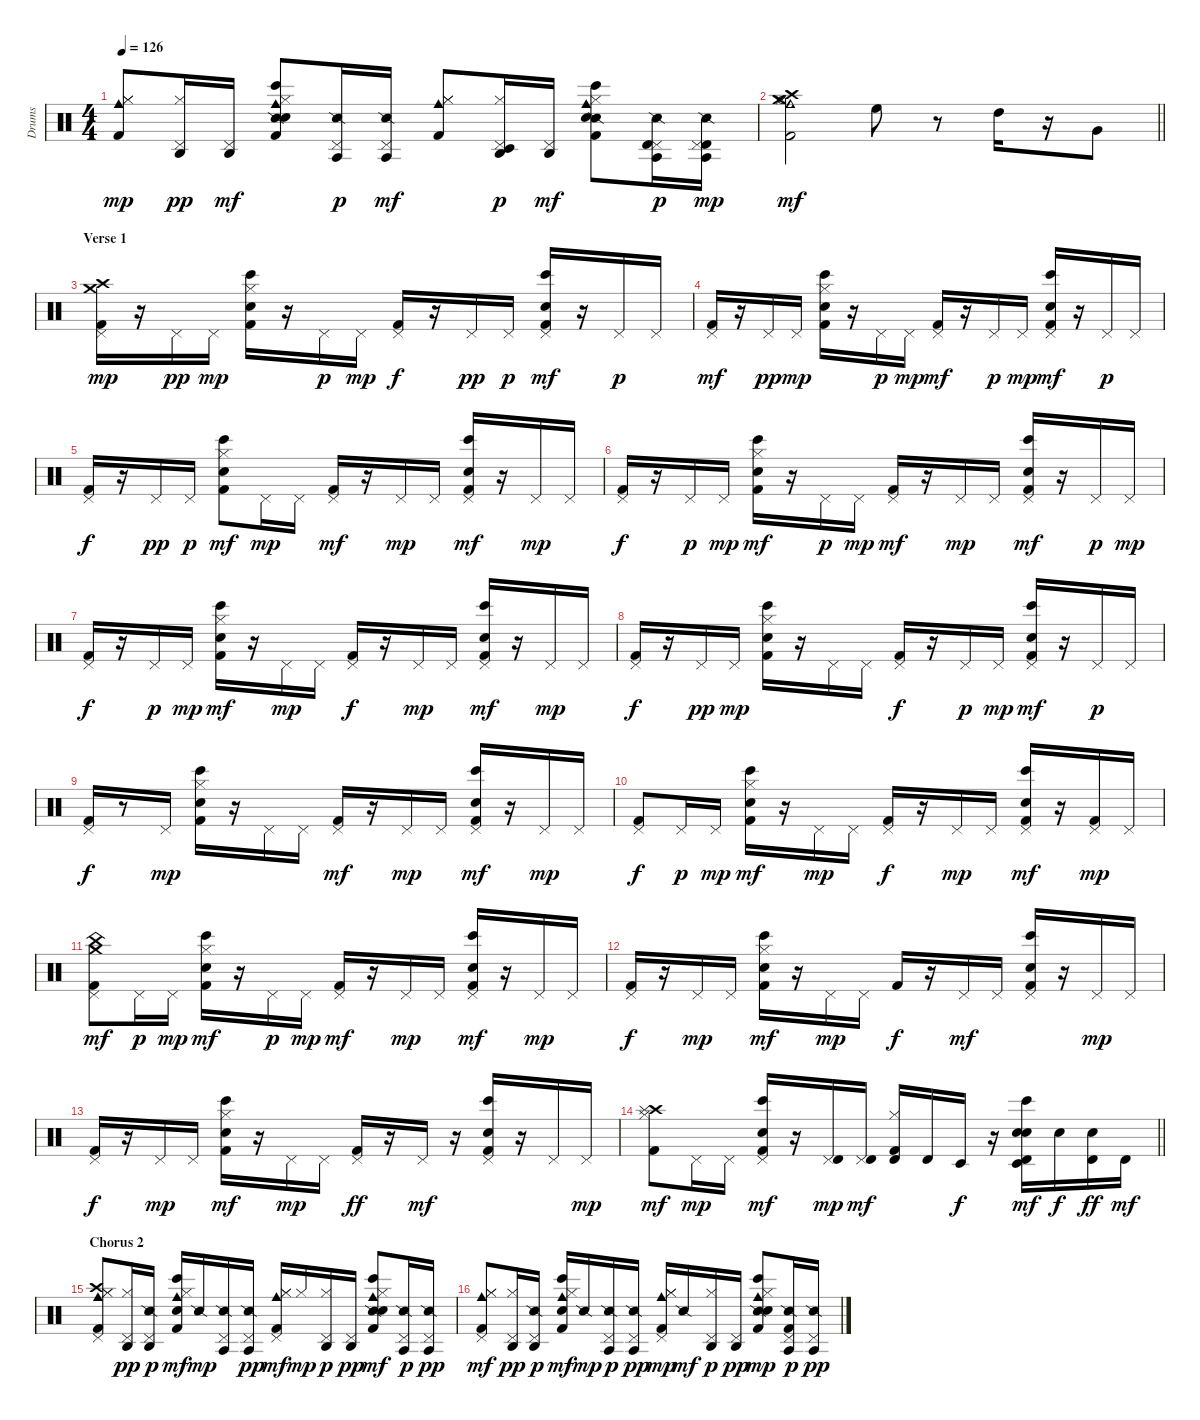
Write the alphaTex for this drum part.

\track ("Drums" "Drums") {instrument percussion}
\staff {score}
\articulation defaults
\ts (4 4)
\tempo 126
\clef neutral
\ks c
("Hi-Hat (closed)" "Kick (hit) 2" "Hi-Hat (closed)" "Cowbell medium (hit)").8{dy mp} ("Hi-Hat (closed)" "Pedal Hi-Hat (hit)" "Agogo high (hit)").16{dy pp} ("Agogo high (hit)" "Pedal Hi-Hat (hit)").16{dy mf} ("Bongo High (hit)" "Snare (side stick) 2" "Kick (hit) 2" "Hand Clap (hit)" "Hi-Hat (closed)" "Cowbell medium (hit)").8 ("Snare (side stick) 2" "Pedal Hi-Hat (hit)" "Agogo tow (hit)").16{dy p} ("Snare (side stick) 2" "Agogo tow (hit)" "Pedal Hi-Hat (hit)").16{dy mf} ("Hi-Hat (closed)" "Kick (hit) 2" "Hi-Hat (closed)" "Cowbell medium (hit)").8 ("Hi-Hat (closed)" "Pedal Hi-Hat (hit)" "Timbale low (hit)" "Agogo high (hit)").16{dy p} ("Agogo high (hit)" "Pedal Hi-Hat (hit)").16{dy mf} ("Bongo High (hit)" "Snare (side stick) 2" "Kick (hit) 2" "Hand Clap (hit)" "Hi-Hat (closed)" "Cowbell medium (hit)").8 ("Snare (side stick) 2" "Pedal Hi-Hat (hit)" "Timbale high (hit)" "Agogo tow (hit)").16{dy p} ("Snare (side stick) 2" "Timbale high (hit)" "Agogo tow (hit)" "Pedal Hi-Hat (hit)").16{dy mp} |
\barLineRight lightlight
("Hi-Hat (closed)" "Kick (hit) 2" "Hi-Hat (open)" "Crash high (hit)" "Cowbell medium (hit)" "Crash medium (hit)").2{dy mf} "High Floor Tom (hit)".8 r.8 "High Tom (hit)".16 r.16 "Very Low Tom (hit)".8 |
\section ("" "Verse 1")
("Kick (hit) 2" "Pedal Hi-Hat (hit)" "Crash high (hit)" "Crash medium (hit)").16{dy mp} r.16 "Pedal Hi-Hat (hit)".16{dy pp} "Pedal Hi-Hat (hit)".16{dy mp} ("Bongo High (hit)" "Kick (hit) 2" "Hand Clap (hit)" "Hi-Hat (closed)").16 r.16 "Pedal Hi-Hat (hit)".16{dy p} "Pedal Hi-Hat (hit)".16{dy mp} ("Kick (hit) 2" "Pedal Hi-Hat (hit)").16{dy f} r.16 "Pedal Hi-Hat (hit)".16{dy pp} "Pedal Hi-Hat (hit)".16{dy p} ("Bongo High (hit)" "Kick (hit) 2" "Hand Clap (hit)" "Pedal Hi-Hat (hit)").16{dy mf} r.16 "Pedal Hi-Hat (hit)".16{dy p} "Pedal Hi-Hat (hit)".16 |
("Kick (hit) 2" "Pedal Hi-Hat (hit)").16{dy mf} r.16 "Pedal Hi-Hat (hit)".16{dy pp} "Pedal Hi-Hat (hit)".16{dy mp} ("Bongo High (hit)" "Kick (hit) 2" "Hand Clap (hit)" "Hi-Hat (closed)").16 r.16 "Pedal Hi-Hat (hit)".16{dy p} "Pedal Hi-Hat (hit)".16{dy mp} ("Kick (hit) 2" "Pedal Hi-Hat (hit)").16{dy mf} r.16 "Pedal Hi-Hat (hit)".16{dy p} "Pedal Hi-Hat (hit)".16{dy mp} ("Bongo High (hit)" "Kick (hit) 2" "Hand Clap (hit)" "Pedal Hi-Hat (hit)").16{dy mf} r.16 "Pedal Hi-Hat (hit)".16{dy p} "Pedal Hi-Hat (hit)".16 |
("Kick (hit) 2" "Pedal Hi-Hat (hit)").16{dy f} r.16 "Pedal Hi-Hat (hit)".16{dy pp} "Pedal Hi-Hat (hit)".16{dy p} ("Bongo High (hit)" "Kick (hit) 2" "Hand Clap (hit)" "Hi-Hat (closed)").8{dy mf} "Pedal Hi-Hat (hit)".16{dy mp} "Pedal Hi-Hat (hit)".16 ("Kick (hit) 2" "Pedal Hi-Hat (hit)").16{dy mf} r.16 "Pedal Hi-Hat (hit)".16{dy mp} "Pedal Hi-Hat (hit)".16 ("Bongo High (hit)" "Kick (hit) 2" "Hand Clap (hit)" "Pedal Hi-Hat (hit)").16{dy mf} r.16 "Pedal Hi-Hat (hit)".16{dy mp} "Pedal Hi-Hat (hit)".16 |
("Kick (hit) 2" "Pedal Hi-Hat (hit)").16{dy f} r.16 "Pedal Hi-Hat (hit)".16{dy p} "Pedal Hi-Hat (hit)".16{dy mp} ("Bongo High (hit)" "Kick (hit) 2" "Hand Clap (hit)" "Hi-Hat (closed)").16{dy mf} r.16 "Pedal Hi-Hat (hit)".16{dy p} "Pedal Hi-Hat (hit)".16{dy mp} ("Kick (hit) 2" "Pedal Hi-Hat (hit)").16{dy mf} r.16 "Pedal Hi-Hat (hit)".16{dy mp} "Pedal Hi-Hat (hit)".16 ("Bongo High (hit)" "Kick (hit) 2" "Hand Clap (hit)" "Pedal Hi-Hat (hit)").16{dy mf} r.16 "Pedal Hi-Hat (hit)".16{dy p} "Pedal Hi-Hat (hit)".16{dy mp} |
("Kick (hit) 2" "Pedal Hi-Hat (hit)").16{dy f} r.16 "Pedal Hi-Hat (hit)".16{dy p} "Pedal Hi-Hat (hit)".16{dy mp} ("Bongo High (hit)" "Kick (hit) 2" "Hand Clap (hit)" "Hi-Hat (closed)").16{dy mf} r.16 "Pedal Hi-Hat (hit)".16{dy mp} "Pedal Hi-Hat (hit)".16 ("Kick (hit) 2" "Pedal Hi-Hat (hit)").16{dy f} r.16 "Pedal Hi-Hat (hit)".16{dy mp} "Pedal Hi-Hat (hit)".16 ("Bongo High (hit)" "Kick (hit) 2" "Hand Clap (hit)" "Pedal Hi-Hat (hit)").16{dy mf} r.16 "Pedal Hi-Hat (hit)".16{dy mp} "Pedal Hi-Hat (hit)".16 |
("Kick (hit) 2" "Pedal Hi-Hat (hit)").16{dy f} r.16 "Pedal Hi-Hat (hit)".16{dy pp} "Pedal Hi-Hat (hit)".16{dy mp} ("Bongo High (hit)" "Kick (hit) 2" "Hand Clap (hit)" "Hi-Hat (closed)").16 r.16 "Pedal Hi-Hat (hit)".16 "Pedal Hi-Hat (hit)".16 ("Kick (hit) 2" "Pedal Hi-Hat (hit)").16{dy f} r.16 "Pedal Hi-Hat (hit)".16{dy p} "Pedal Hi-Hat (hit)".16{dy mp} ("Bongo High (hit)" "Kick (hit) 2" "Hand Clap (hit)" "Pedal Hi-Hat (hit)").16{dy mf} r.16 "Pedal Hi-Hat (hit)".16{dy p} "Pedal Hi-Hat (hit)".16 |
("Kick (hit) 2" "Pedal Hi-Hat (hit)").16{dy f} r.8 "Pedal Hi-Hat (hit)".16{dy mp} ("Bongo High (hit)" "Kick (hit) 2" "Hand Clap (hit)" "Hi-Hat (closed)").16 r.16 "Pedal Hi-Hat (hit)".16 "Pedal Hi-Hat (hit)".16 ("Kick (hit) 2" "Pedal Hi-Hat (hit)").16{dy mf} r.16 "Pedal Hi-Hat (hit)".16{dy mp} "Pedal Hi-Hat (hit)".16 ("Bongo High (hit)" "Kick (hit) 2" "Hand Clap (hit)" "Pedal Hi-Hat (hit)").16{dy mf} r.16 "Pedal Hi-Hat (hit)".16{dy mp} "Pedal Hi-Hat (hit)".16 |
("Kick (hit) 2" "Pedal Hi-Hat (hit)").8{dy f} "Pedal Hi-Hat (hit)".16{dy p} "Pedal Hi-Hat (hit)".16{dy mp} ("Bongo High (hit)" "Kick (hit) 2" "Hand Clap (hit)" "Hi-Hat (closed)").16{dy mf} r.16 "Pedal Hi-Hat (hit)".16{dy mp} "Pedal Hi-Hat (hit)".16 ("Kick (hit) 2" "Pedal Hi-Hat (hit)").16{dy f} r.16 "Pedal Hi-Hat (hit)".16{dy mp} "Pedal Hi-Hat (hit)".16 ("Bongo High (hit)" "Kick (hit) 2" "Hand Clap (hit)" "Pedal Hi-Hat (hit)").16{dy mf} r.16 ("Kick (hit) 2" "Pedal Hi-Hat (hit)").16{dy mp} "Pedal Hi-Hat (hit)".16 |
("Kick (hit) 2" "Pedal Hi-Hat (hit)" "China (hit)" "Crash medium (hit)").8{dy mf} "Pedal Hi-Hat (hit)".16{dy p} "Pedal Hi-Hat (hit)".16{dy mp} ("Bongo High (hit)" "Kick (hit) 2" "Hand Clap (hit)" "Hi-Hat (closed)").16{dy mf} r.16 "Pedal Hi-Hat (hit)".16{dy p} "Pedal Hi-Hat (hit)".16{dy mp} ("Kick (hit) 2" "Pedal Hi-Hat (hit)").16{dy mf} r.16 "Pedal Hi-Hat (hit)".16{dy mp} "Pedal Hi-Hat (hit)".16 ("Bongo High (hit)" "Kick (hit) 2" "Hand Clap (hit)" "Pedal Hi-Hat (hit)").16{dy mf} r.16 "Pedal Hi-Hat (hit)".16{dy mp} "Pedal Hi-Hat (hit)".16 |
("Kick (hit) 2" "Pedal Hi-Hat (hit)").16{dy f} r.16 "Pedal Hi-Hat (hit)".16{dy mp} "Pedal Hi-Hat (hit)".16 ("Bongo High (hit)" "Kick (hit) 2" "Hand Clap (hit)" "Hi-Hat (closed)").16{dy mf} r.16 "Pedal Hi-Hat (hit)".16{dy mp} "Pedal Hi-Hat (hit)".16 "Kick (hit) 2".16{dy f} r.16 "Pedal Hi-Hat (hit)".16{dy mf} "Pedal Hi-Hat (hit)".16 ("Bongo High (hit)" "Kick (hit) 2" "Hand Clap (hit)" "Pedal Hi-Hat (hit)").16 r.16 "Pedal Hi-Hat (hit)".16{dy mp} "Pedal Hi-Hat (hit)".16 |
("Kick (hit) 2" "Pedal Hi-Hat (hit)").16{dy f} r.16 "Pedal Hi-Hat (hit)".16{dy mp} "Pedal Hi-Hat (hit)".16 ("Bongo High (hit)" "Kick (hit) 2" "Hand Clap (hit)" "Hi-Hat (closed)").16{dy mf} r.16 "Pedal Hi-Hat (hit)".16{dy mp} "Pedal Hi-Hat (hit)".16 ("Kick (hit) 2" "Pedal Hi-Hat (hit)").16{dy ff} r.16 "Pedal Hi-Hat (hit)".16{dy mf} r.16 ("Bongo High (hit)" "Kick (hit) 2" "Hand Clap (hit)" "Pedal Hi-Hat (hit)").16 r.16 "Pedal Hi-Hat (hit)".16 "Pedal Hi-Hat (hit)".16{dy mp} |
\barLineRight lightlight
("Kick (hit) 2" "Hi-Hat (closed)" "Crash high (hit)" "Splash (hit)").8{dy mf} "Pedal Hi-Hat (hit)".16{dy mp} "Pedal Hi-Hat (hit)".16 ("Bongo High (hit)" "Kick (hit) 2" "Hand Clap (hit)" "Pedal Hi-Hat (hit)").16{dy mf} r.16 ("Pedal Hi-Hat (hit)" "Timbale high (hit)").16{dy mp} ("Pedal Hi-Hat (hit)" "Timbale high (hit)").16{dy mf} ("Kick (hit) 2" "Hi-Hat (closed)" "Timbale high (hit)").16 "Timbale high (hit)".16 "Timbale low (hit)".16{dy f} r.16 ("Bongo High (hit)" "Hand Clap (hit)" "Electric Snare (hit)" "Timbale high (hit)" "Timbale low (hit)").16{dy mf} "Electric Snare (hit)".16{dy f} ("Electric Snare (hit)" "Timbale high (hit)").16{dy ff} "Timbale high (hit)".16{dy mf} |
\section ("" "Chorus 2")
("Hi-Hat (closed)" "Kick (hit) 2" "Hi-Hat (closed)" "Pedal Hi-Hat (hit)" "Crash high (hit)" "Cowbell medium (hit)").8 ("Hi-Hat (closed)" "Pedal Hi-Hat (hit)" "Agogo high (hit)").16{dy pp} ("Snare (side stick) 2" "Pedal Hi-Hat (hit)" "Agogo high (hit)").16{dy p} ("Bongo High (hit)" "Kick (hit) 2" "Hand Clap (hit)" "Hi-Hat (closed)" "Cowbell medium (hit)").16{dy mf} "Snare (side stick) 2".16{dy mp} ("Snare (side stick) 2" "Pedal Hi-Hat (hit)" "Agogo tow (hit)").16 ("Snare (side stick) 2" "Pedal Hi-Hat (hit)" "Agogo tow (hit)").16{dy pp} ("Hi-Hat (closed)" "Kick (hit) 2" "Hi-Hat (closed)" "Pedal Hi-Hat (hit)" "Cowbell medium (hit)").16{dy mf} "Hi-Hat (closed)".16{dy mp} ("Hi-Hat (closed)" "Pedal Hi-Hat (hit)" "Agogo high (hit)").16{dy p} ("Pedal Hi-Hat (hit)" "Agogo high (hit)").16{dy pp} ("Bongo High (hit)" "Snare (side stick) 2" "Kick (hit) 2" "Hand Clap (hit)" "Hi-Hat (closed)" "Cowbell medium (hit)").8{dy mf} ("Snare (side stick) 2" "Pedal Hi-Hat (hit)" "Agogo tow (hit)").16{dy p} ("Snare (side stick) 2" "Pedal Hi-Hat (hit)" "Agogo tow (hit)").16{dy pp} |
("Hi-Hat (closed)" "Kick (hit) 2" "Hi-Hat (closed)" "Pedal Hi-Hat (hit)" "Cowbell medium (hit)").8{dy mf} ("Hi-Hat (closed)" "Pedal Hi-Hat (hit)" "Agogo high (hit)").16{dy pp} ("Snare (side stick) 2" "Pedal Hi-Hat (hit)" "Agogo high (hit)").16{dy p} ("Bongo High (hit)" "Kick (hit) 2" "Hand Clap (hit)" "Hi-Hat (closed)" "Cowbell medium (hit)").16{dy mf} "Snare (side stick) 2".16{dy mp} ("Snare (side stick) 2" "Pedal Hi-Hat (hit)" "Agogo tow (hit)").16{dy p} ("Snare (side stick) 2" "Pedal Hi-Hat (hit)" "Agogo tow (hit)").16{dy pp} ("Hi-Hat (closed)" "Kick (hit) 2" "Hi-Hat (closed)" "Pedal Hi-Hat (hit)" "Cowbell medium (hit)").16{dy mp} "Snare (side stick) 2".16{dy mf} ("Hi-Hat (closed)" "Pedal Hi-Hat (hit)" "Agogo high (hit)").16{dy p} ("Pedal Hi-Hat (hit)" "Agogo high (hit)").16{dy pp} ("Bongo High (hit)" "Snare (side stick) 2" "Kick (hit) 2" "Hand Clap (hit)" "Hi-Hat (closed)" "Cowbell medium (hit)").8{dy mp} ("Snare (side stick) 2" "Kick (hit) 2" "Pedal Hi-Hat (hit)" "Agogo tow (hit)").16{dy p} ("Snare (side stick) 2" "Pedal Hi-Hat (hit)" "Agogo tow (hit)").16{dy pp}
